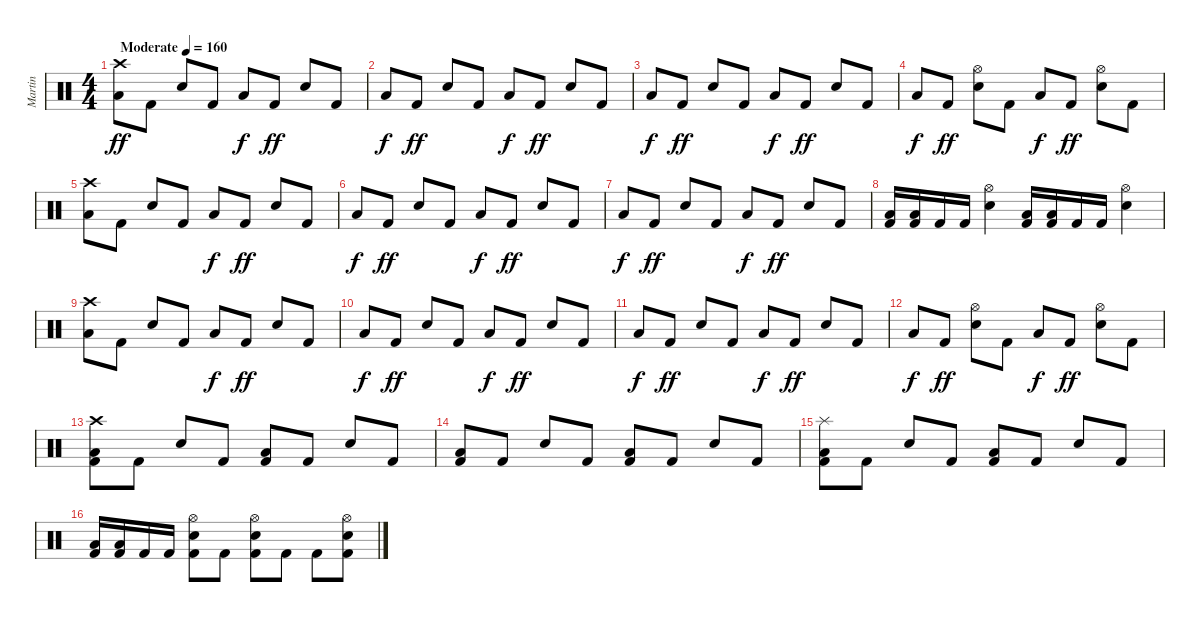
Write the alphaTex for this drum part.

\track ("Martin" "Martin") {instrument percussion}
\staff {score}
\articulation defaults
\ts (4 4)
\tempo (160 "Moderate")
\clef neutral
\ks c
("Crash high (hit)" "Low Floor Tom (hit)").8{dy ff} "Kick (hit) 2".8 "Electric Snare (hit)".8 "Kick (hit) 2".8 "Low Floor Tom (hit)".8{dy f} "Kick (hit) 2".8{dy ff} "Electric Snare (hit)".8 "Kick (hit) 2".8 |
"Low Floor Tom (hit)".8{dy f} "Kick (hit) 2".8{dy ff} "Electric Snare (hit)".8 "Kick (hit) 2".8 "Low Floor Tom (hit)".8{dy f} "Kick (hit) 2".8{dy ff} "Electric Snare (hit)".8 "Kick (hit) 2".8 |
"Low Floor Tom (hit)".8{dy f} "Kick (hit) 2".8{dy ff} "Electric Snare (hit)".8 "Kick (hit) 2".8 "Low Floor Tom (hit)".8{dy f} "Kick (hit) 2".8{dy ff} "Electric Snare (hit)".8 "Kick (hit) 2".8 |
"Low Floor Tom (hit)".8{dy f} "Kick (hit) 2".8{dy ff} ("Hi-Hat (open)" "Electric Snare (hit)").8 "Kick (hit) 2".8 "Low Floor Tom (hit)".8{dy f} "Kick (hit) 2".8{dy ff} ("Hi-Hat (open)" "Electric Snare (hit)").8 "Kick (hit) 2".8 |
("Crash high (hit)" "Low Floor Tom (hit)").8 "Kick (hit) 2".8 "Electric Snare (hit)".8 "Kick (hit) 2".8 "Low Floor Tom (hit)".8{dy f} "Kick (hit) 2".8{dy ff} "Electric Snare (hit)".8 "Kick (hit) 2".8 |
"Low Floor Tom (hit)".8{dy f} "Kick (hit) 2".8{dy ff} "Electric Snare (hit)".8 "Kick (hit) 2".8 "Low Floor Tom (hit)".8{dy f} "Kick (hit) 2".8{dy ff} "Electric Snare (hit)".8 "Kick (hit) 2".8 |
"Low Floor Tom (hit)".8{dy f} "Kick (hit) 2".8{dy ff} "Electric Snare (hit)".8 "Kick (hit) 2".8 "Low Floor Tom (hit)".8{dy f} "Kick (hit) 2".8{dy ff} "Electric Snare (hit)".8 "Kick (hit) 2".8 |
("Low Floor Tom (hit)" "Kick (hit) 2").16 ("Low Floor Tom (hit)" "Kick (hit) 2").16 "Kick (hit) 2".16 "Kick (hit) 2".16 ("Hi-Hat (open)" "Electric Snare (hit)").4 ("Low Floor Tom (hit)" "Kick (hit) 2").16 ("Low Floor Tom (hit)" "Kick (hit) 2").16 "Kick (hit) 2".16 "Kick (hit) 2".16 ("Hi-Hat (open)" "Electric Snare (hit)").4 |
("Crash high (hit)" "Low Floor Tom (hit)").8 "Kick (hit) 2".8 "Electric Snare (hit)".8 "Kick (hit) 2".8 "Low Floor Tom (hit)".8{dy f} "Kick (hit) 2".8{dy ff} "Electric Snare (hit)".8 "Kick (hit) 2".8 |
"Low Floor Tom (hit)".8{dy f} "Kick (hit) 2".8{dy ff} "Electric Snare (hit)".8 "Kick (hit) 2".8 "Low Floor Tom (hit)".8{dy f} "Kick (hit) 2".8{dy ff} "Electric Snare (hit)".8 "Kick (hit) 2".8 |
"Low Floor Tom (hit)".8{dy f} "Kick (hit) 2".8{dy ff} "Electric Snare (hit)".8 "Kick (hit) 2".8 "Low Floor Tom (hit)".8{dy f} "Kick (hit) 2".8{dy ff} "Electric Snare (hit)".8 "Kick (hit) 2".8 |
"Low Floor Tom (hit)".8{dy f} "Kick (hit) 2".8{dy ff} ("Hi-Hat (open)" "Electric Snare (hit)").8 "Kick (hit) 2".8 "Low Floor Tom (hit)".8{dy f} "Kick (hit) 2".8{dy ff} ("Hi-Hat (open)" "Electric Snare (hit)").8 "Kick (hit) 2".8 |
("Crash high (hit)" "Low Floor Tom (hit)" "Kick (hit) 2").8 "Kick (hit) 2".8 "Electric Snare (hit)".8 "Kick (hit) 2".8 ("Low Floor Tom (hit)" "Kick (hit) 2").8 "Kick (hit) 2".8 "Electric Snare (hit)".8 "Kick (hit) 2".8 |
("Low Floor Tom (hit)" "Kick (hit) 2").8 "Kick (hit) 2".8 "Electric Snare (hit)".8 "Kick (hit) 2".8 ("Low Floor Tom (hit)" "Kick (hit) 2").8 "Kick (hit) 2".8 "Electric Snare (hit)".8 "Kick (hit) 2".8 |
("Splash (hit)" "Low Floor Tom (hit)" "Kick (hit) 2").8 "Kick (hit) 2".8 "Electric Snare (hit)".8 "Kick (hit) 2".8 ("Low Floor Tom (hit)" "Kick (hit) 2").8 "Kick (hit) 2".8 "Electric Snare (hit)".8 "Kick (hit) 2".8 |
("Low Floor Tom (hit)" "Kick (hit) 2").16 ("Low Floor Tom (hit)" "Kick (hit) 2").16 "Kick (hit) 2".16 "Kick (hit) 2".16 ("Hi-Hat (open)" "Electric Snare (hit)" "Kick (hit) 2").8 "Kick (hit) 2".8 ("Hi-Hat (open)" "Electric Snare (hit)" "Kick (hit) 2").8 "Kick (hit) 2".8 "Kick (hit) 2".8 ("Hi-Hat (open)" "Electric Snare (hit)" "Kick (hit) 2").8
